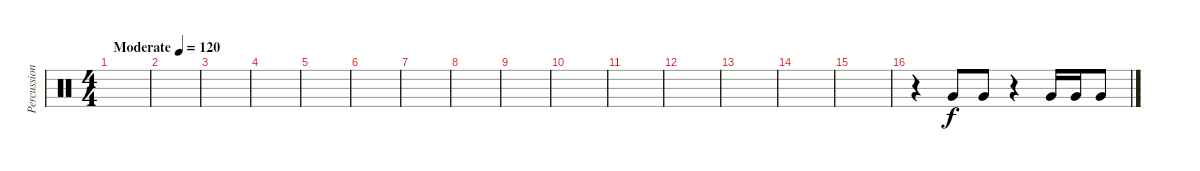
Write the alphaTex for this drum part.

\track ("Percussion" "Percussion") {instrument percussion}
\staff {score}
\articulation defaults
\ts (4 4)
\tempo (120 "Moderate")
\clef neutral
\ks c
|
|
|
|
|
|
|
|
|
|
|
|
|
|
|
r.4 "Very Low Tom (hit)".8 "Very Low Tom (hit)".8 r.4 "Very Low Tom (hit)".16 "Very Low Tom (hit)".16 "Very Low Tom (hit)".8
